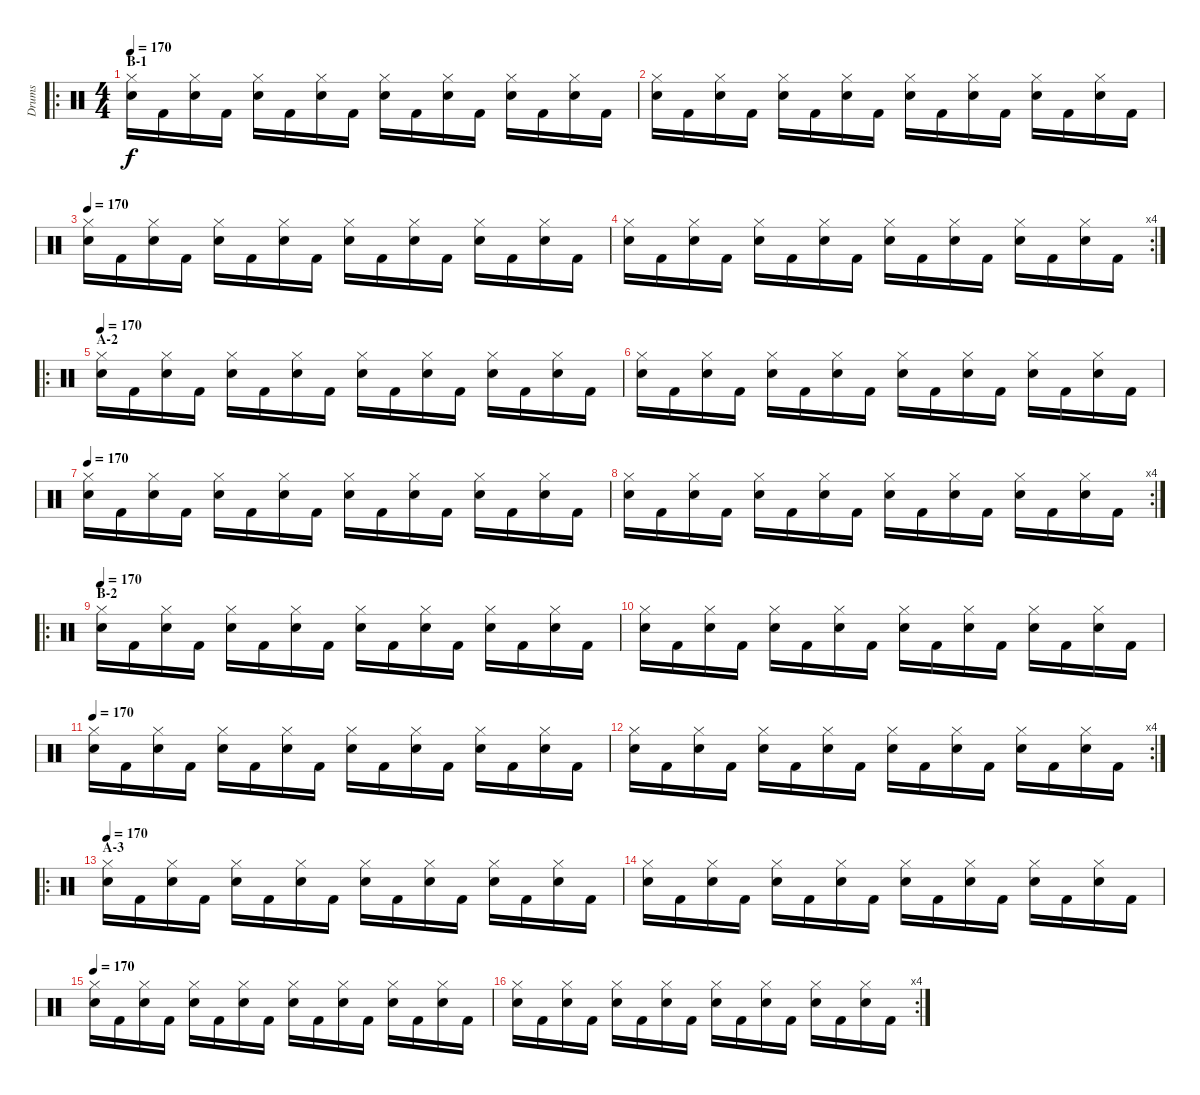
\track ("Drums" "Drums") {instrument percussion}
\staff {score}
\articulation defaults
\ro
\ts (4 4)
\section ("" "B-1")
\tempo 170
\clef neutral
\ks c
("Hi-Hat (closed)" "Electric Snare (hit)").16{dy f} "Kick (hit) 2".16 ("Hi-Hat (closed)" "Electric Snare (hit)").16 "Kick (hit) 2".16 ("Hi-Hat (closed)" "Electric Snare (hit)").16 "Kick (hit) 2".16 ("Hi-Hat (closed)" "Electric Snare (hit)").16 "Kick (hit) 2".16 ("Hi-Hat (closed)" "Electric Snare (hit)").16 "Kick (hit) 2".16 ("Hi-Hat (closed)" "Electric Snare (hit)").16 "Kick (hit) 2".16 ("Hi-Hat (closed)" "Electric Snare (hit)").16 "Kick (hit) 2".16 ("Hi-Hat (closed)" "Electric Snare (hit)").16 "Kick (hit) 2".16 |
("Hi-Hat (closed)" "Electric Snare (hit)").16 "Kick (hit) 2".16 ("Hi-Hat (closed)" "Electric Snare (hit)").16 "Kick (hit) 2".16 ("Hi-Hat (closed)" "Electric Snare (hit)").16 "Kick (hit) 2".16 ("Hi-Hat (closed)" "Electric Snare (hit)").16 "Kick (hit) 2".16 ("Hi-Hat (closed)" "Electric Snare (hit)").16 "Kick (hit) 2".16 ("Hi-Hat (closed)" "Electric Snare (hit)").16 "Kick (hit) 2".16 ("Hi-Hat (closed)" "Electric Snare (hit)").16 "Kick (hit) 2".16 ("Hi-Hat (closed)" "Electric Snare (hit)").16 "Kick (hit) 2".16 |
\tempo 170
("Hi-Hat (closed)" "Electric Snare (hit)").16 "Kick (hit) 2".16 ("Hi-Hat (closed)" "Electric Snare (hit)").16 "Kick (hit) 2".16 ("Hi-Hat (closed)" "Electric Snare (hit)").16 "Kick (hit) 2".16 ("Hi-Hat (closed)" "Electric Snare (hit)").16 "Kick (hit) 2".16 ("Hi-Hat (closed)" "Electric Snare (hit)").16 "Kick (hit) 2".16 ("Hi-Hat (closed)" "Electric Snare (hit)").16 "Kick (hit) 2".16 ("Hi-Hat (closed)" "Electric Snare (hit)").16 "Kick (hit) 2".16 ("Hi-Hat (closed)" "Electric Snare (hit)").16 "Kick (hit) 2".16 |
\rc 4
("Hi-Hat (closed)" "Electric Snare (hit)").16 "Kick (hit) 2".16 ("Hi-Hat (closed)" "Electric Snare (hit)").16 "Kick (hit) 2".16 ("Hi-Hat (closed)" "Electric Snare (hit)").16 "Kick (hit) 2".16 ("Hi-Hat (closed)" "Electric Snare (hit)").16 "Kick (hit) 2".16 ("Hi-Hat (closed)" "Electric Snare (hit)").16 "Kick (hit) 2".16 ("Hi-Hat (closed)" "Electric Snare (hit)").16 "Kick (hit) 2".16 ("Hi-Hat (closed)" "Electric Snare (hit)").16 "Kick (hit) 2".16 ("Hi-Hat (closed)" "Electric Snare (hit)").16 "Kick (hit) 2".16 |
\ro
\section ("" "A-2")
\tempo 170
("Hi-Hat (closed)" "Electric Snare (hit)").16 "Kick (hit) 2".16 ("Hi-Hat (closed)" "Electric Snare (hit)").16 "Kick (hit) 2".16 ("Hi-Hat (closed)" "Electric Snare (hit)").16 "Kick (hit) 2".16 ("Hi-Hat (closed)" "Electric Snare (hit)").16 "Kick (hit) 2".16 ("Hi-Hat (closed)" "Electric Snare (hit)").16 "Kick (hit) 2".16 ("Hi-Hat (closed)" "Electric Snare (hit)").16 "Kick (hit) 2".16 ("Hi-Hat (closed)" "Electric Snare (hit)").16 "Kick (hit) 2".16 ("Hi-Hat (closed)" "Electric Snare (hit)").16 "Kick (hit) 2".16 |
("Hi-Hat (closed)" "Electric Snare (hit)").16 "Kick (hit) 2".16 ("Hi-Hat (closed)" "Electric Snare (hit)").16 "Kick (hit) 2".16 ("Hi-Hat (closed)" "Electric Snare (hit)").16 "Kick (hit) 2".16 ("Hi-Hat (closed)" "Electric Snare (hit)").16 "Kick (hit) 2".16 ("Hi-Hat (closed)" "Electric Snare (hit)").16 "Kick (hit) 2".16 ("Hi-Hat (closed)" "Electric Snare (hit)").16 "Kick (hit) 2".16 ("Hi-Hat (closed)" "Electric Snare (hit)").16 "Kick (hit) 2".16 ("Hi-Hat (closed)" "Electric Snare (hit)").16 "Kick (hit) 2".16 |
\tempo 170
("Hi-Hat (closed)" "Electric Snare (hit)").16 "Kick (hit) 2".16 ("Hi-Hat (closed)" "Electric Snare (hit)").16 "Kick (hit) 2".16 ("Hi-Hat (closed)" "Electric Snare (hit)").16 "Kick (hit) 2".16 ("Hi-Hat (closed)" "Electric Snare (hit)").16 "Kick (hit) 2".16 ("Hi-Hat (closed)" "Electric Snare (hit)").16 "Kick (hit) 2".16 ("Hi-Hat (closed)" "Electric Snare (hit)").16 "Kick (hit) 2".16 ("Hi-Hat (closed)" "Electric Snare (hit)").16 "Kick (hit) 2".16 ("Hi-Hat (closed)" "Electric Snare (hit)").16 "Kick (hit) 2".16 |
\rc 4
("Hi-Hat (closed)" "Electric Snare (hit)").16 "Kick (hit) 2".16 ("Hi-Hat (closed)" "Electric Snare (hit)").16 "Kick (hit) 2".16 ("Hi-Hat (closed)" "Electric Snare (hit)").16 "Kick (hit) 2".16 ("Hi-Hat (closed)" "Electric Snare (hit)").16 "Kick (hit) 2".16 ("Hi-Hat (closed)" "Electric Snare (hit)").16 "Kick (hit) 2".16 ("Hi-Hat (closed)" "Electric Snare (hit)").16 "Kick (hit) 2".16 ("Hi-Hat (closed)" "Electric Snare (hit)").16 "Kick (hit) 2".16 ("Hi-Hat (closed)" "Electric Snare (hit)").16 "Kick (hit) 2".16 |
\ro
\section ("" "B-2")
\tempo 170
("Hi-Hat (closed)" "Electric Snare (hit)").16 "Kick (hit) 2".16 ("Hi-Hat (closed)" "Electric Snare (hit)").16 "Kick (hit) 2".16 ("Hi-Hat (closed)" "Electric Snare (hit)").16 "Kick (hit) 2".16 ("Hi-Hat (closed)" "Electric Snare (hit)").16 "Kick (hit) 2".16 ("Hi-Hat (closed)" "Electric Snare (hit)").16 "Kick (hit) 2".16 ("Hi-Hat (closed)" "Electric Snare (hit)").16 "Kick (hit) 2".16 ("Hi-Hat (closed)" "Electric Snare (hit)").16 "Kick (hit) 2".16 ("Hi-Hat (closed)" "Electric Snare (hit)").16 "Kick (hit) 2".16 |
("Hi-Hat (closed)" "Electric Snare (hit)").16 "Kick (hit) 2".16 ("Hi-Hat (closed)" "Electric Snare (hit)").16 "Kick (hit) 2".16 ("Hi-Hat (closed)" "Electric Snare (hit)").16 "Kick (hit) 2".16 ("Hi-Hat (closed)" "Electric Snare (hit)").16 "Kick (hit) 2".16 ("Hi-Hat (closed)" "Electric Snare (hit)").16 "Kick (hit) 2".16 ("Hi-Hat (closed)" "Electric Snare (hit)").16 "Kick (hit) 2".16 ("Hi-Hat (closed)" "Electric Snare (hit)").16 "Kick (hit) 2".16 ("Hi-Hat (closed)" "Electric Snare (hit)").16 "Kick (hit) 2".16 |
\tempo 170
("Hi-Hat (closed)" "Electric Snare (hit)").16 "Kick (hit) 2".16 ("Hi-Hat (closed)" "Electric Snare (hit)").16 "Kick (hit) 2".16 ("Hi-Hat (closed)" "Electric Snare (hit)").16 "Kick (hit) 2".16 ("Hi-Hat (closed)" "Electric Snare (hit)").16 "Kick (hit) 2".16 ("Hi-Hat (closed)" "Electric Snare (hit)").16 "Kick (hit) 2".16 ("Hi-Hat (closed)" "Electric Snare (hit)").16 "Kick (hit) 2".16 ("Hi-Hat (closed)" "Electric Snare (hit)").16 "Kick (hit) 2".16 ("Hi-Hat (closed)" "Electric Snare (hit)").16 "Kick (hit) 2".16 |
\rc 4
("Hi-Hat (closed)" "Electric Snare (hit)").16 "Kick (hit) 2".16 ("Hi-Hat (closed)" "Electric Snare (hit)").16 "Kick (hit) 2".16 ("Hi-Hat (closed)" "Electric Snare (hit)").16 "Kick (hit) 2".16 ("Hi-Hat (closed)" "Electric Snare (hit)").16 "Kick (hit) 2".16 ("Hi-Hat (closed)" "Electric Snare (hit)").16 "Kick (hit) 2".16 ("Hi-Hat (closed)" "Electric Snare (hit)").16 "Kick (hit) 2".16 ("Hi-Hat (closed)" "Electric Snare (hit)").16 "Kick (hit) 2".16 ("Hi-Hat (closed)" "Electric Snare (hit)").16 "Kick (hit) 2".16 |
\ro
\section ("" "A-3")
\tempo 170
("Hi-Hat (closed)" "Electric Snare (hit)").16 "Kick (hit) 2".16 ("Hi-Hat (closed)" "Electric Snare (hit)").16 "Kick (hit) 2".16 ("Hi-Hat (closed)" "Electric Snare (hit)").16 "Kick (hit) 2".16 ("Hi-Hat (closed)" "Electric Snare (hit)").16 "Kick (hit) 2".16 ("Hi-Hat (closed)" "Electric Snare (hit)").16 "Kick (hit) 2".16 ("Hi-Hat (closed)" "Electric Snare (hit)").16 "Kick (hit) 2".16 ("Hi-Hat (closed)" "Electric Snare (hit)").16 "Kick (hit) 2".16 ("Hi-Hat (closed)" "Electric Snare (hit)").16 "Kick (hit) 2".16 |
("Hi-Hat (closed)" "Electric Snare (hit)").16 "Kick (hit) 2".16 ("Hi-Hat (closed)" "Electric Snare (hit)").16 "Kick (hit) 2".16 ("Hi-Hat (closed)" "Electric Snare (hit)").16 "Kick (hit) 2".16 ("Hi-Hat (closed)" "Electric Snare (hit)").16 "Kick (hit) 2".16 ("Hi-Hat (closed)" "Electric Snare (hit)").16 "Kick (hit) 2".16 ("Hi-Hat (closed)" "Electric Snare (hit)").16 "Kick (hit) 2".16 ("Hi-Hat (closed)" "Electric Snare (hit)").16 "Kick (hit) 2".16 ("Hi-Hat (closed)" "Electric Snare (hit)").16 "Kick (hit) 2".16 |
\tempo 170
("Hi-Hat (closed)" "Electric Snare (hit)").16 "Kick (hit) 2".16 ("Hi-Hat (closed)" "Electric Snare (hit)").16 "Kick (hit) 2".16 ("Hi-Hat (closed)" "Electric Snare (hit)").16 "Kick (hit) 2".16 ("Hi-Hat (closed)" "Electric Snare (hit)").16 "Kick (hit) 2".16 ("Hi-Hat (closed)" "Electric Snare (hit)").16 "Kick (hit) 2".16 ("Hi-Hat (closed)" "Electric Snare (hit)").16 "Kick (hit) 2".16 ("Hi-Hat (closed)" "Electric Snare (hit)").16 "Kick (hit) 2".16 ("Hi-Hat (closed)" "Electric Snare (hit)").16 "Kick (hit) 2".16 |
\rc 4
("Hi-Hat (closed)" "Electric Snare (hit)").16 "Kick (hit) 2".16 ("Hi-Hat (closed)" "Electric Snare (hit)").16 "Kick (hit) 2".16 ("Hi-Hat (closed)" "Electric Snare (hit)").16 "Kick (hit) 2".16 ("Hi-Hat (closed)" "Electric Snare (hit)").16 "Kick (hit) 2".16 ("Hi-Hat (closed)" "Electric Snare (hit)").16 "Kick (hit) 2".16 ("Hi-Hat (closed)" "Electric Snare (hit)").16 "Kick (hit) 2".16 ("Hi-Hat (closed)" "Electric Snare (hit)").16 "Kick (hit) 2".16 ("Hi-Hat (closed)" "Electric Snare (hit)").16 "Kick (hit) 2".16
